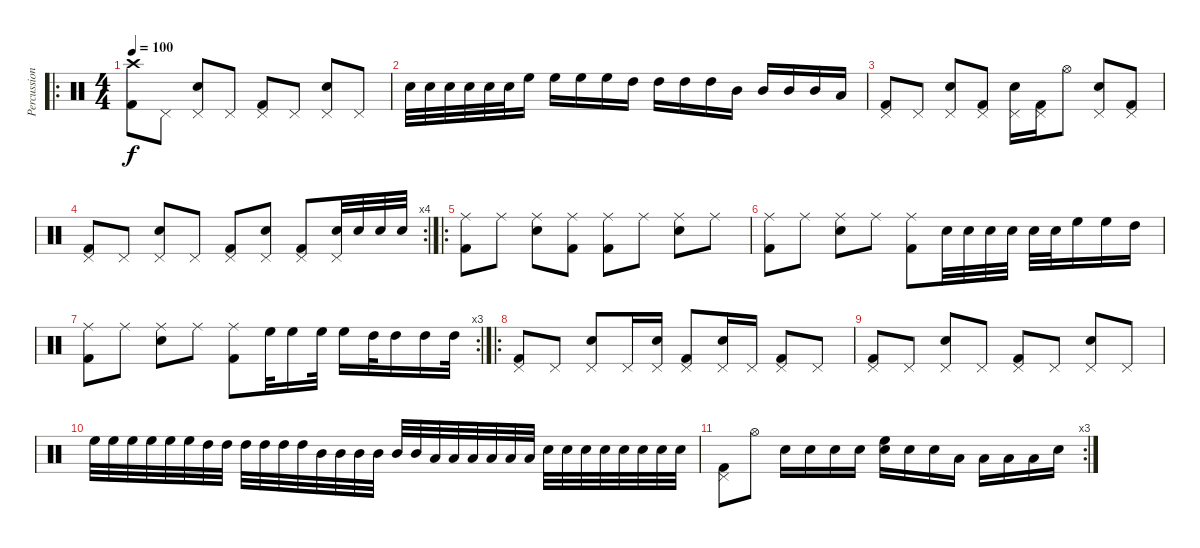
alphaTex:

\track ("Percussions" "Percussion") {instrument percussion}
\staff {score}
\articulation defaults
\ro
\ts (4 4)
\tempo 100
\clef neutral
\ks c
("Crash high (hit)" "Kick (hit) 2").8{dy f} "Pedal Hi-Hat (hit)".8 ("Pedal Hi-Hat (hit)" "Electric Snare (hit)").8 "Pedal Hi-Hat (hit)".8 ("Pedal Hi-Hat (hit)" "Kick (hit) 2").8 "Pedal Hi-Hat (hit)".8 ("Pedal Hi-Hat (hit)" "Electric Snare (hit)").8 "Pedal Hi-Hat (hit)".8 |
"Electric Snare (hit)".32 "Electric Snare (hit)".32 "Electric Snare (hit)".32 "Electric Snare (hit)".32 "Electric Snare (hit)".32 "Electric Snare (hit)".32 "High Floor Tom (hit)".16 "High Floor Tom (hit)".16 "High Floor Tom (hit)".16 "High Floor Tom (hit)".16 "High Tom (hit)".16 "High Tom (hit)".16 "High Tom (hit)".16 "High Tom (hit)".16 "Mid Tom (hit)".16 "Mid Tom (hit)".16 "Mid Tom (hit)".16 "Mid Tom (hit)".16 "Low Floor Tom (hit)".16 |
("Pedal Hi-Hat (hit)" "Kick (hit) 2").8 "Pedal Hi-Hat (hit)".8 ("Pedal Hi-Hat (hit)" "Electric Snare (hit)").8 ("Pedal Hi-Hat (hit)" "Kick (hit) 2").8 ("Pedal Hi-Hat (hit)" "Electric Snare (hit)").16 ("Pedal Hi-Hat (hit)" "Kick (hit) 2").16 "Hi-Hat (open)".8 ("Pedal Hi-Hat (hit)" "Electric Snare (hit)").8 ("Pedal Hi-Hat (hit)" "Kick (hit) 2").8 |
\rc 4
("Pedal Hi-Hat (hit)" "Kick (hit) 2").8 "Pedal Hi-Hat (hit)".8 ("Pedal Hi-Hat (hit)" "Electric Snare (hit)").8 "Pedal Hi-Hat (hit)".8 ("Pedal Hi-Hat (hit)" "Kick (hit) 2").8 ("Pedal Hi-Hat (hit)" "Electric Snare (hit)").8 ("Pedal Hi-Hat (hit)" "Kick (hit) 2").8 ("Pedal Hi-Hat (hit)" "Electric Snare (hit)").32 "Electric Snare (hit)".32 "Electric Snare (hit)".32 "Electric Snare (hit)".32 |
\ro
("Ride (middle)" "Kick (hit) 2").8 "Ride (middle)".8 ("Ride (middle)" "Electric Snare (hit)").8 ("Ride (middle)" "Kick (hit) 2").8 ("Ride (middle)" "Kick (hit) 2").8 "Ride (middle)".8 ("Ride (middle)" "Electric Snare (hit)").8 "Ride (middle)".8 |
("Ride (middle)" "Kick (hit) 2").8 "Ride (middle)".8 ("Ride (middle)" "Electric Snare (hit)").8 "Ride (middle)".8 ("Ride (middle)" "Kick (hit) 2").8 "Electric Snare (hit)".32 "Electric Snare (hit)".32 "Electric Snare (hit)".32 "Electric Snare (hit)".32 "Electric Snare (hit)".32 "Electric Snare (hit)".32 "High Floor Tom (hit)".16 "High Floor Tom (hit)".16 "High Tom (hit)".16 |
\rc 3
("Ride (middle)" "Kick (hit) 2").8 "Ride (middle)".8 ("Ride (middle)" "Electric Snare (hit)").8 "Ride (middle)".8 ("Ride (middle)" "Kick (hit) 2").8 "High Floor Tom (hit)".32 "High Floor Tom (hit)".16 "High Floor Tom (hit)".32 "High Floor Tom (hit)".16 "High Tom (hit)".32 "High Tom (hit)".16 "High Tom (hit)".16 "High Tom (hit)".32 |
\ro
("Pedal Hi-Hat (hit)" "Kick (hit) 2").8 "Pedal Hi-Hat (hit)".8 ("Pedal Hi-Hat (hit)" "Electric Snare (hit)").8 "Pedal Hi-Hat (hit)".16 ("Pedal Hi-Hat (hit)" "Electric Snare (hit)").16 ("Pedal Hi-Hat (hit)" "Kick (hit) 2").8 ("Pedal Hi-Hat (hit)" "Electric Snare (hit)").16 "Pedal Hi-Hat (hit)".16 ("Pedal Hi-Hat (hit)" "Kick (hit) 2").8 "Pedal Hi-Hat (hit)".8 |
("Pedal Hi-Hat (hit)" "Kick (hit) 2").8 "Pedal Hi-Hat (hit)".8 ("Pedal Hi-Hat (hit)" "Electric Snare (hit)").8 "Pedal Hi-Hat (hit)".8 ("Pedal Hi-Hat (hit)" "Kick (hit) 2").8 "Pedal Hi-Hat (hit)".8 ("Pedal Hi-Hat (hit)" "Electric Snare (hit)").8 "Pedal Hi-Hat (hit)".8 |
"High Floor Tom (hit)".32 "High Floor Tom (hit)".32 "High Floor Tom (hit)".32 "High Floor Tom (hit)".32 "High Floor Tom (hit)".32 "High Floor Tom (hit)".32 "High Tom (hit)".32 "High Tom (hit)".32 "High Tom (hit)".32 "High Tom (hit)".32 "High Tom (hit)".32 "High Tom (hit)".32 "Mid Tom (hit)".32 "Mid Tom (hit)".32 "Mid Tom (hit)".32 "Mid Tom (hit)".32 "Mid Tom (hit)".32 "Mid Tom (hit)".32 "Low Floor Tom (hit)".32 "Low Floor Tom (hit)".32 "Low Floor Tom (hit)".32 "Low Floor Tom (hit)".32 "Low Floor Tom (hit)".32 "Low Floor Tom (hit)".32 "Electric Snare (hit)".32 "Electric Snare (hit)".32 "Electric Snare (hit)".32 "Electric Snare (hit)".32 "Electric Snare (hit)".32 "Electric Snare (hit)".32 "Electric Snare (hit)".32 "Electric Snare (hit)".32 |
\rc 3
("Pedal Hi-Hat (hit)" "Kick (hit) 2").8 "Hi-Hat (open)".8 "Electric Snare (hit)".16 "Electric Snare (hit)".16 "Electric Snare (hit)".16 "Electric Snare (hit)".16 ("High Floor Tom (hit)" "Electric Snare (hit)").16 "Electric Snare (hit)".16 "Electric Snare (hit)".16 "Low Floor Tom (hit)".16 "Low Floor Tom (hit)".16 "Low Floor Tom (hit)".16 "Low Floor Tom (hit)".16 "Electric Snare (hit)".16
